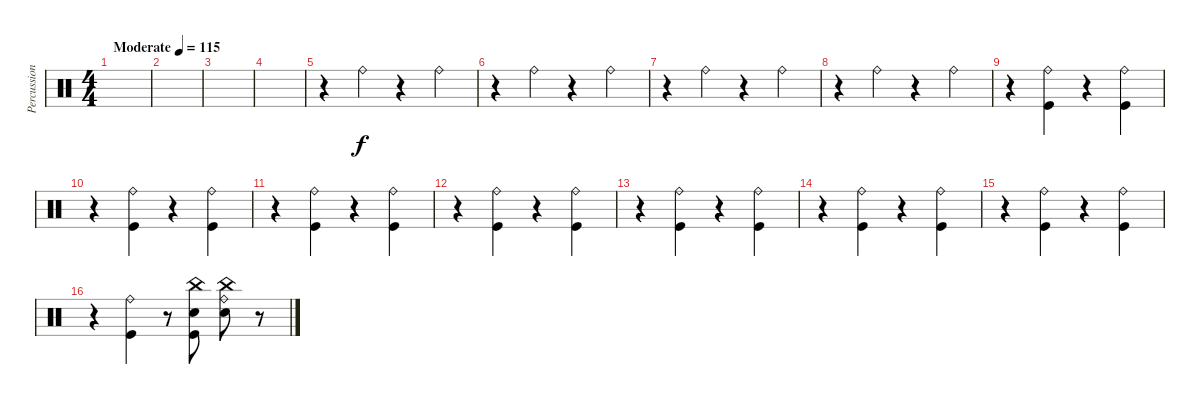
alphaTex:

\track ("Percussion" "Percussion") {instrument percussion}
\staff {score}
\articulation defaults
\ts (4 4)
\tempo (115 "Moderate")
\clef neutral
\ks c
|
|
|
|
r.4 "Ride (bell)".4 r.4 "Ride (bell)".4 |
r.4 "Ride (bell)".4 r.4 "Ride (bell)".4 |
r.4 "Ride (bell)".4 r.4 "Ride (bell)".4 |
r.4 "Ride (bell)".4 r.4 "Ride (bell)".4 |
r.4 ("Ride (bell)" "Kick (hit)").4 r.4 ("Ride (bell)" "Kick (hit)").4 |
r.4 ("Ride (bell)" "Kick (hit)").4 r.4 ("Ride (bell)" "Kick (hit)").4 |
r.4 ("Ride (bell)" "Kick (hit)").4 r.4 ("Ride (bell)" "Kick (hit)").4 |
r.4 ("Ride (bell)" "Kick (hit)").4 r.4 ("Ride (bell)" "Kick (hit)").4 |
r.4 ("Ride (bell)" "Kick (hit)").4 r.4 ("Ride (bell)" "Kick (hit)").4 |
r.4 ("Ride (bell)" "Kick (hit)").4 r.4 ("Ride (bell)" "Kick (hit)").4 |
r.4 ("Ride (bell)" "Kick (hit)").4 r.4 ("Ride (bell)" "Kick (hit)").4 |
r.4 ("Ride (bell)" "Kick (hit)").4 r.8 ("Electric Snare (hit)" "Kick (hit)" "China (hit)").8 ("Electric Snare (hit)" "Ride (bell)" "China (hit)").8 r.8
